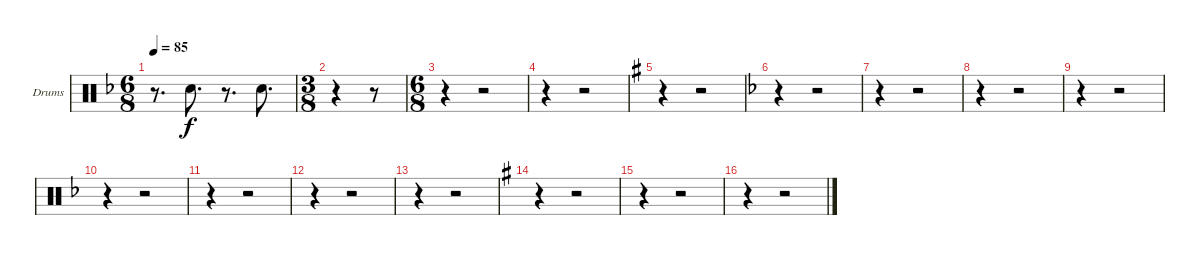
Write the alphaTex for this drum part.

\bracketExtendMode groupsimilarinstruments
\firstSystemTrackNameOrientation horizontal
\otherSystemsTrackNameOrientation horizontal
\track ("Drumkit" "Drums") {instrument percussion}
\staff {score}
\articulation defaults
\ts (6 8)
\tempo 85
\clef neutral
\ks f
r.8{d dy f} "Snare (hit) 2".8{d} r.8{d} "Snare (hit) 2".8{d} |
\ts (3 8)
\beaming (8 3)
r.4 r.8 |
\ts (6 8)
\beaming (8 3 3)
r.4 r.2 |
r.4 r.2 |
\ks g
r.4 r.2 |
\ks f
r.4 r.2 |
r.4 r.2 |
r.4 r.2 |
r.4 r.2 |
r.4 r.2 |
r.4 r.2 |
r.4 r.2 |
r.4 r.2 |
\ks g
r.4 r.2 |
r.4 r.2 |
r.4 r.2
